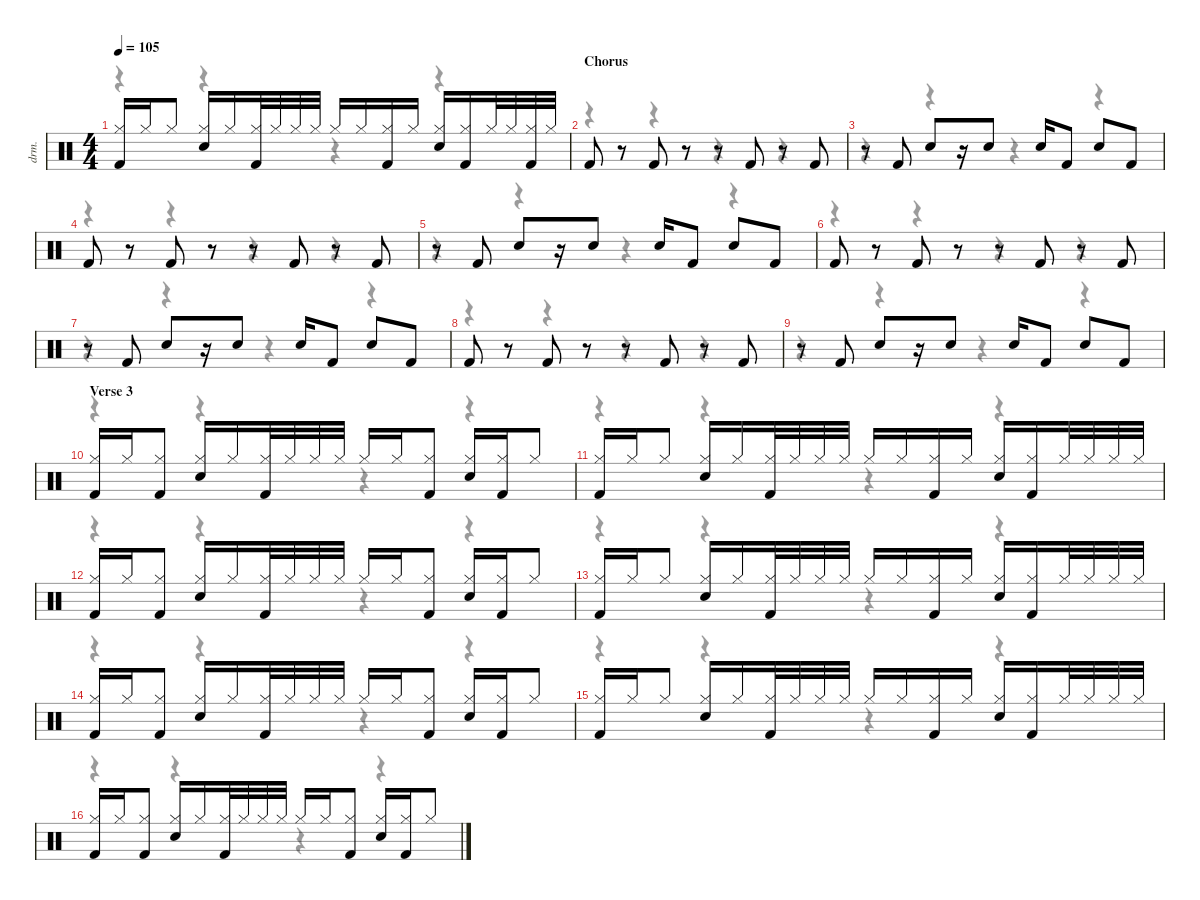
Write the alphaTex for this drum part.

\defaultSystemsLayout 4
\hideDynamics
\bracketExtendMode nobrackets
\otherSystemsTrackNameOrientation horizontal
\track ("Drums" "drm.") {instrument percussion}
\staff {score}
\articulation defaults
\voice
\ts (4 4)
\tempo 105
\clef neutral
\ks c
("Hi-Hat (closed)" "Kick (hit) 2").16{dy mp} "Hi-Hat (closed)".16 "Hi-Hat (closed)".8 ("Hi-Hat (closed)" "Snare (hit) 2").16 "Hi-Hat (closed)".16 ("Hi-Hat (closed)" "Kick (hit) 2").32 "Hi-Hat (closed)".32 "Hi-Hat (closed)".32 "Hi-Hat (closed)".32 "Hi-Hat (closed)".16 "Hi-Hat (closed)".16 ("Hi-Hat (closed)" "Kick (hit) 2").16 "Hi-Hat (closed)".16 ("Hi-Hat (closed)" "Snare (hit) 2").16 ("Hi-Hat (closed)" "Kick (hit) 2").16 "Hi-Hat (closed)".32 "Hi-Hat (closed)".32 ("Hi-Hat (closed)" "Kick (hit) 2").32 "Hi-Hat (closed)".32 |
\section ("" "Chorus")
"Kick (hit) 2".8{dy fff} r.8 "Kick (hit) 2".8 r.8 r.8 "Kick (hit) 2".8 r.8 "Kick (hit) 2".8 |
r.8 "Kick (hit) 2".8 "Snare (hit) 2".8 r.16 "Snare (hit) 2".8 "Snare (hit) 2".16 "Kick (hit) 2".8 "Snare (hit) 2".8 "Kick (hit) 2".8 |
"Kick (hit) 2".8 r.8 "Kick (hit) 2".8 r.8 r.8 "Kick (hit) 2".8 r.8 "Kick (hit) 2".8 |
r.8 "Kick (hit) 2".8 "Snare (hit) 2".8 r.16 "Snare (hit) 2".8 "Snare (hit) 2".16 "Kick (hit) 2".8 "Snare (hit) 2".8 "Kick (hit) 2".8 |
"Kick (hit) 2".8 r.8 "Kick (hit) 2".8 r.8 r.8 "Kick (hit) 2".8 r.8 "Kick (hit) 2".8 |
r.8 "Kick (hit) 2".8 "Snare (hit) 2".8 r.16 "Snare (hit) 2".8 "Snare (hit) 2".16 "Kick (hit) 2".8 "Snare (hit) 2".8 "Kick (hit) 2".8 |
"Kick (hit) 2".8 r.8 "Kick (hit) 2".8 r.8 r.8 "Kick (hit) 2".8 r.8 "Kick (hit) 2".8 |
r.8 "Kick (hit) 2".8 "Snare (hit) 2".8 r.16 "Snare (hit) 2".8 "Snare (hit) 2".16 "Kick (hit) 2".8 "Snare (hit) 2".8 "Kick (hit) 2".8 |
\section ("" "Verse 3")
("Hi-Hat (closed)" "Kick (hit) 2").16{dy mp} "Hi-Hat (closed)".16 ("Hi-Hat (closed)" "Kick (hit) 2").8 ("Hi-Hat (closed)" "Snare (hit) 2").16 "Hi-Hat (closed)".16 ("Hi-Hat (closed)" "Kick (hit) 2").32 "Hi-Hat (closed)".32 "Hi-Hat (closed)".32 "Hi-Hat (closed)".32 "Hi-Hat (closed)".16 "Hi-Hat (closed)".16 ("Hi-Hat (closed)" "Kick (hit) 2").8 ("Hi-Hat (closed)" "Snare (hit) 2").16 ("Hi-Hat (closed)" "Kick (hit) 2").16 "Hi-Hat (closed)".8 |
("Hi-Hat (closed)" "Kick (hit) 2").16 "Hi-Hat (closed)".16 "Hi-Hat (closed)".8 ("Hi-Hat (closed)" "Snare (hit) 2").16 "Hi-Hat (closed)".16 ("Hi-Hat (closed)" "Kick (hit) 2").32 "Hi-Hat (closed)".32 "Hi-Hat (closed)".32 "Hi-Hat (closed)".32 "Hi-Hat (closed)".16 "Hi-Hat (closed)".16 ("Hi-Hat (closed)" "Kick (hit) 2").16 "Hi-Hat (closed)".16 ("Hi-Hat (closed)" "Snare (hit) 2").16 ("Hi-Hat (closed)" "Kick (hit) 2").16 "Hi-Hat (closed)".32 "Hi-Hat (closed)".32 "Hi-Hat (closed)".32 "Hi-Hat (closed)".32 |
("Hi-Hat (closed)" "Kick (hit) 2").16 "Hi-Hat (closed)".16 ("Hi-Hat (closed)" "Kick (hit) 2").8 ("Hi-Hat (closed)" "Snare (hit) 2").16 "Hi-Hat (closed)".16 ("Hi-Hat (closed)" "Kick (hit) 2").32 "Hi-Hat (closed)".32 "Hi-Hat (closed)".32 "Hi-Hat (closed)".32 "Hi-Hat (closed)".16 "Hi-Hat (closed)".16 ("Hi-Hat (closed)" "Kick (hit) 2").8 ("Hi-Hat (closed)" "Snare (hit) 2").16 ("Hi-Hat (closed)" "Kick (hit) 2").16 "Hi-Hat (closed)".8 |
("Hi-Hat (closed)" "Kick (hit) 2").16 "Hi-Hat (closed)".16 "Hi-Hat (closed)".8 ("Hi-Hat (closed)" "Snare (hit) 2").16 "Hi-Hat (closed)".16 ("Hi-Hat (closed)" "Kick (hit) 2").32 "Hi-Hat (closed)".32 "Hi-Hat (closed)".32 "Hi-Hat (closed)".32 "Hi-Hat (closed)".16 "Hi-Hat (closed)".16 ("Hi-Hat (closed)" "Kick (hit) 2").16 "Hi-Hat (closed)".16 ("Hi-Hat (closed)" "Snare (hit) 2").16 ("Hi-Hat (closed)" "Kick (hit) 2").16 "Hi-Hat (closed)".32 "Hi-Hat (closed)".32 "Hi-Hat (closed)".32 "Hi-Hat (closed)".32 |
("Hi-Hat (closed)" "Kick (hit) 2").16 "Hi-Hat (closed)".16 ("Hi-Hat (closed)" "Kick (hit) 2").8 ("Hi-Hat (closed)" "Snare (hit) 2").16 "Hi-Hat (closed)".16 ("Hi-Hat (closed)" "Kick (hit) 2").32 "Hi-Hat (closed)".32 "Hi-Hat (closed)".32 "Hi-Hat (closed)".32 "Hi-Hat (closed)".16 "Hi-Hat (closed)".16 ("Hi-Hat (closed)" "Kick (hit) 2").8 ("Hi-Hat (closed)" "Snare (hit) 2").16 ("Hi-Hat (closed)" "Kick (hit) 2").16 "Hi-Hat (closed)".8 |
("Hi-Hat (closed)" "Kick (hit) 2").16 "Hi-Hat (closed)".16 "Hi-Hat (closed)".8 ("Hi-Hat (closed)" "Snare (hit) 2").16 "Hi-Hat (closed)".16 ("Hi-Hat (closed)" "Kick (hit) 2").32 "Hi-Hat (closed)".32 "Hi-Hat (closed)".32 "Hi-Hat (closed)".32 "Hi-Hat (closed)".16 "Hi-Hat (closed)".16 ("Hi-Hat (closed)" "Kick (hit) 2").16 "Hi-Hat (closed)".16 ("Hi-Hat (closed)" "Snare (hit) 2").16 ("Hi-Hat (closed)" "Kick (hit) 2").16 "Hi-Hat (closed)".32 "Hi-Hat (closed)".32 "Hi-Hat (closed)".32 "Hi-Hat (closed)".32 |
("Hi-Hat (closed)" "Kick (hit) 2").16 "Hi-Hat (closed)".16 ("Hi-Hat (closed)" "Kick (hit) 2").8 ("Hi-Hat (closed)" "Snare (hit) 2").16 "Hi-Hat (closed)".16 ("Hi-Hat (closed)" "Kick (hit) 2").32 "Hi-Hat (closed)".32 "Hi-Hat (closed)".32 "Hi-Hat (closed)".32 "Hi-Hat (closed)".16 "Hi-Hat (closed)".16 ("Hi-Hat (closed)" "Kick (hit) 2").8 ("Hi-Hat (closed)" "Snare (hit) 2").16 ("Hi-Hat (closed)" "Kick (hit) 2").16 "Hi-Hat (closed)".8
\voice
\clef neutral
\ottava regular
\simile none
\ks c
r.4{dy mf} r.4 r.4 r.4 |
r.4 r.4 r.4 r.4 |
r.4 r.4 r.4 r.4 |
r.4 r.4 r.4 r.4 |
r.4 r.4 r.4 r.4 |
r.4 r.4 r.4 r.4 |
r.4 r.4 r.4 r.4 |
r.4 r.4 r.4 r.4 |
r.4 r.4 r.4 r.4 |
r.4 r.4 r.4 r.4 |
r.4 r.4 r.4 r.4 |
r.4 r.4 r.4 r.4 |
r.4 r.4 r.4 r.4 |
r.4 r.4 r.4 r.4 |
r.4 r.4 r.4 r.4 |
r.4 r.4 r.4 r.4
